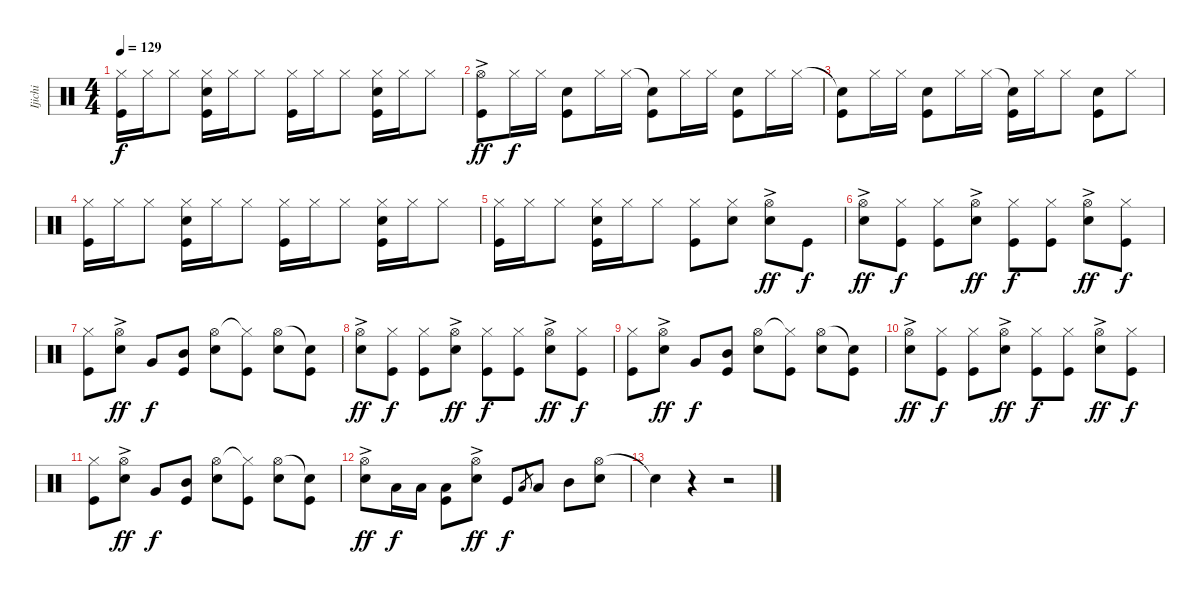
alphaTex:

\track ("Ijichi" "Ijichi") {instrument percussion}
\staff {score}
\articulation defaults
\ts (4 4)
\tempo 129
\clef neutral
\ks c
("Hi-Hat (closed)" "Kick (hit)").16{dy f} "Hi-Hat (closed)".16 "Hi-Hat (closed)".8 ("Hi-Hat (closed)" "Snare (hit) 2" "Kick (hit)").16 "Hi-Hat (closed)".16 "Hi-Hat (closed)".8 ("Hi-Hat (closed)" "Kick (hit)").16 "Hi-Hat (closed)".16 "Hi-Hat (closed)".8 ("Hi-Hat (closed)" "Snare (hit) 2" "Kick (hit)").16 "Hi-Hat (closed)".16 "Hi-Hat (closed)".8 |
("Hi-Hat (open)"{ac} "Kick (hit)").8{dy ff} "Hi-Hat (closed)".16{dy f} "Hi-Hat (closed)".16 ("Snare (hit) 2" "Kick (hit)").8 "Hi-Hat (closed)".16 "Hi-Hat (closed)".16 ("Snare (hit)"{t} "Kick (hit)").8 "Hi-Hat (closed)".16 "Hi-Hat (closed)".16 ("Snare (hit) 2" "Kick (hit)").8 "Hi-Hat (closed)".16 "Hi-Hat (closed)".16 |
("Snare (hit)"{t} "Kick (hit)").8 "Hi-Hat (closed)".16 "Hi-Hat (closed)".16 ("Snare (hit) 2" "Kick (hit)").8 "Hi-Hat (closed)".16 "Hi-Hat (closed)".16 ("Snare (hit)"{t} "Kick (hit)").16 "Hi-Hat (closed)".16 "Hi-Hat (closed)".8 ("Snare (hit) 2" "Kick (hit)").8 "Hi-Hat (closed)".8 |
("Hi-Hat (closed)" "Kick (hit)").16 "Hi-Hat (closed)".16 "Hi-Hat (closed)".8 ("Hi-Hat (closed)" "Snare (hit) 2" "Kick (hit)").16 "Hi-Hat (closed)".16 "Hi-Hat (closed)".8 ("Hi-Hat (closed)" "Kick (hit)").16 "Hi-Hat (closed)".16 "Hi-Hat (closed)".8 ("Hi-Hat (closed)" "Snare (hit) 2" "Kick (hit)").16 "Hi-Hat (closed)".16 "Hi-Hat (closed)".8 |
("Hi-Hat (closed)" "Kick (hit)").16 "Hi-Hat (closed)".16 "Hi-Hat (closed)".8 ("Hi-Hat (closed)" "Snare (hit) 2" "Kick (hit)").16 "Hi-Hat (closed)".16 "Hi-Hat (closed)".8 ("Hi-Hat (closed)" "Kick (hit)").8 ("Hi-Hat (closed)" "Snare (hit) 2").8 ("Hi-Hat (open)"{ac} "Snare (hit) 2").8{dy ff} "Kick (hit)".8{dy f} |
("Hi-Hat (open)"{ac} "Snare (hit) 2").8{dy ff} ("Hi-Hat (closed)" "Kick (hit)").8{dy f} ("Hi-Hat (closed)" "Kick (hit)").8 ("Hi-Hat (open)"{ac} "Snare (hit) 2").8{dy ff} ("Hi-Hat (closed)" "Kick (hit)").8{dy f} ("Hi-Hat (closed)" "Kick (hit)").8 ("Hi-Hat (open)"{ac} "Snare (hit) 2").8{dy ff} ("Hi-Hat (closed)" "Kick (hit)").8{dy f} |
("Hi-Hat (closed)" "Kick (hit)").8 ("Hi-Hat (open)"{ac} "Snare (hit) 2").8{dy ff} "Very Low Tom (hit)".8{dy f} ("Mid Tom (hit)" "Kick (hit)").8 ("Hi-Hat (open)" "Snare (hit) 2").8 ("Hi-Hat (closed)"{t} "Kick (hit)").8 ("Hi-Hat (open)" "Snare (hit) 2").8 ("Snare (hit)"{t} "Kick (hit)").8 |
("Hi-Hat (open)"{ac} "Snare (hit) 2").8{dy ff} ("Hi-Hat (closed)" "Kick (hit)").8{dy f} ("Hi-Hat (closed)" "Kick (hit)").8 ("Hi-Hat (open)"{ac} "Snare (hit) 2").8{dy ff} ("Hi-Hat (closed)" "Kick (hit)").8{dy f} ("Hi-Hat (closed)" "Kick (hit)").8 ("Hi-Hat (open)"{ac} "Snare (hit) 2").8{dy ff} ("Hi-Hat (closed)" "Kick (hit)").8{dy f} |
("Hi-Hat (closed)" "Kick (hit)").8 ("Hi-Hat (open)"{ac} "Snare (hit) 2").8{dy ff} "Very Low Tom (hit)".8{dy f} ("Mid Tom (hit)" "Kick (hit)").8 ("Hi-Hat (open)" "Snare (hit) 2").8 ("Hi-Hat (closed)"{t} "Kick (hit)").8 ("Hi-Hat (open)" "Snare (hit) 2").8 ("Snare (hit)"{t} "Kick (hit)").8 |
("Hi-Hat (open)"{ac} "Snare (hit) 2").8{dy ff} ("Hi-Hat (closed)" "Kick (hit)").8{dy f} ("Hi-Hat (closed)" "Kick (hit)").8 ("Hi-Hat (open)"{ac} "Snare (hit) 2").8{dy ff} ("Hi-Hat (closed)" "Kick (hit)").8{dy f} ("Hi-Hat (closed)" "Kick (hit)").8 ("Hi-Hat (open)"{ac} "Snare (hit) 2").8{dy ff} ("Hi-Hat (closed)" "Kick (hit)").8{dy f} |
("Hi-Hat (closed)" "Kick (hit)").8 ("Hi-Hat (open)"{ac} "Snare (hit) 2").8{dy ff} "Very Low Tom (hit)".8{dy f} ("Mid Tom (hit)" "Kick (hit)").8 ("Hi-Hat (open)" "Snare (hit) 2").8 ("Hi-Hat (closed)"{t} "Kick (hit)").8 ("Hi-Hat (open)" "Snare (hit) 2").8 ("Snare (hit)"{t} "Kick (hit)").8 |
("Hi-Hat (open)"{ac} "Snare (hit) 2").8{dy ff} "Low Tom (hit)".16{dy f} "Low Tom (hit)".16 ("Low Tom (hit)" "Kick (hit)").8 ("Hi-Hat (open)"{ac} "Snare (hit) 2").8{dy ff} "Kick (hit)".8{dy f} "Low Tom (hit)".8{gr} "Low Tom (hit)".8 "Mid Tom (hit)".8 ("Hi-Hat (open)" "Snare (hit) 2").8 |
"Snare (hit)"{t}.4 r.4 r.2
